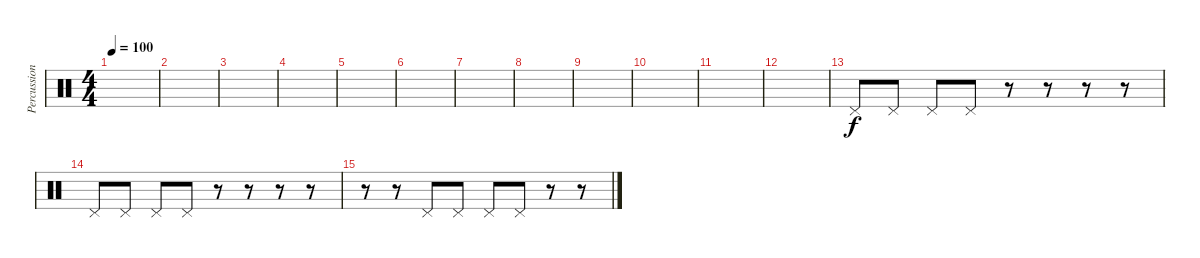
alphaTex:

\track ("Percussions" "Percussion") {instrument percussion}
\staff {score}
\articulation defaults
\ts (4 4)
\tempo 100
\clef neutral
\ks c
|
|
|
|
|
|
|
|
|
|
|
|
"Pedal Hi-Hat (hit)".8 "Pedal Hi-Hat (hit)".8 "Pedal Hi-Hat (hit)".8 "Pedal Hi-Hat (hit)".8 r.8 r.8 r.8 r.8 |
"Pedal Hi-Hat (hit)".8 "Pedal Hi-Hat (hit)".8 "Pedal Hi-Hat (hit)".8 "Pedal Hi-Hat (hit)".8 r.8 r.8 r.8 r.8 |
r.8 r.8 "Pedal Hi-Hat (hit)".8 "Pedal Hi-Hat (hit)".8 "Pedal Hi-Hat (hit)".8 "Pedal Hi-Hat (hit)".8 r.8 r.8
